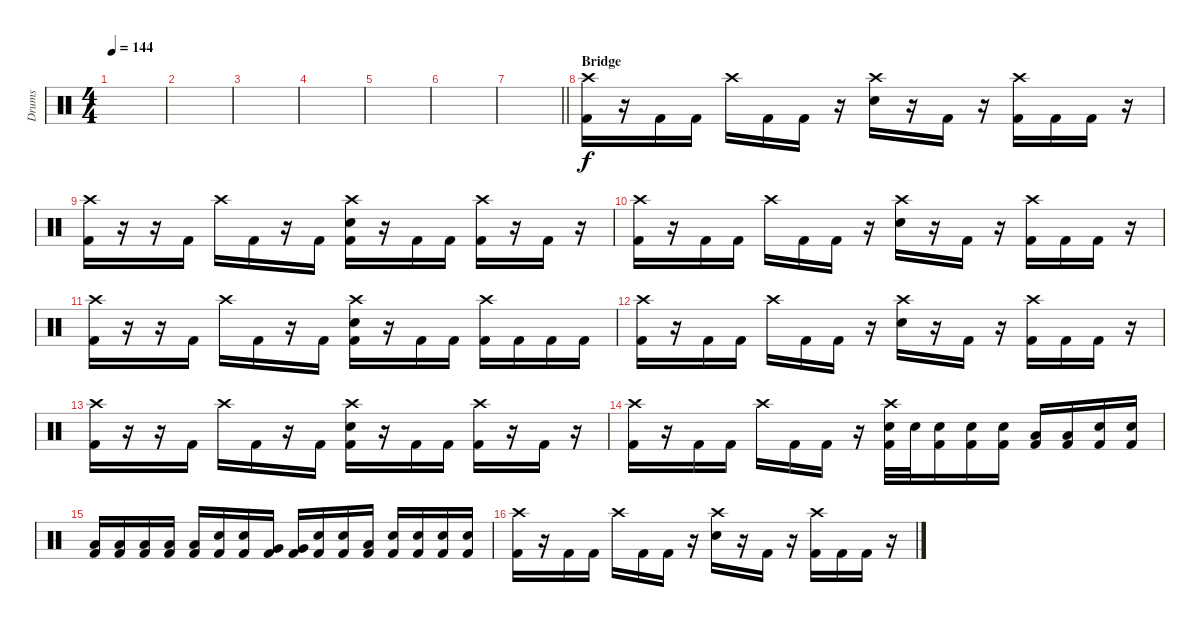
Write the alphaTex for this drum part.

\track ("Drums" "Drums") {instrument percussion}
\staff {score}
\articulation defaults
\ts (4 4)
\tempo 144
\clef neutral
\ks c
|
|
|
|
|
|
\barLineRight lightlight
|
\section ("" "Bridge")
("Crash high (hit)" "Kick (hit) 2").16 r.16 "Kick (hit) 2".16 "Kick (hit) 2".16 "Crash high (hit)".16 "Kick (hit) 2".16 "Kick (hit) 2".16 r.16 ("Crash high (hit)" "Snare (hit) 2").16 r.16 "Kick (hit) 2".16 r.16 ("Crash high (hit)" "Kick (hit) 2").16 "Kick (hit) 2".16 "Kick (hit) 2".16 r.16 |
("Crash high (hit)" "Kick (hit) 2").16 r.16 r.16 "Kick (hit) 2".16 "Crash high (hit)".16 "Kick (hit) 2".16 r.16 "Kick (hit) 2".16 ("Crash high (hit)" "Snare (hit) 2" "Kick (hit) 2").16 r.16 "Kick (hit) 2".16 "Kick (hit) 2".16 ("Crash high (hit)" "Kick (hit) 2").16 r.16 "Kick (hit) 2".16 r.16 |
("Crash high (hit)" "Kick (hit) 2").16 r.16 "Kick (hit) 2".16 "Kick (hit) 2".16 "Crash high (hit)".16 "Kick (hit) 2".16 "Kick (hit) 2".16 r.16 ("Crash high (hit)" "Snare (hit) 2").16 r.16 "Kick (hit) 2".16 r.16 ("Crash high (hit)" "Kick (hit) 2").16 "Kick (hit) 2".16 "Kick (hit) 2".16 r.16 |
("Crash high (hit)" "Kick (hit) 2").16 r.16 r.16 "Kick (hit) 2".16 "Crash high (hit)".16 "Kick (hit) 2".16 r.16 "Kick (hit) 2".16 ("Crash high (hit)" "Snare (hit) 2" "Kick (hit) 2").16 r.16 "Kick (hit) 2".16 "Kick (hit) 2".16 ("Crash high (hit)" "Kick (hit) 2").16 "Kick (hit) 2".16 "Kick (hit) 2".16 "Kick (hit) 2".16 |
("Crash high (hit)" "Kick (hit) 2").16 r.16 "Kick (hit) 2".16 "Kick (hit) 2".16 "Crash high (hit)".16 "Kick (hit) 2".16 "Kick (hit) 2".16 r.16 ("Crash high (hit)" "Snare (hit) 2").16 r.16 "Kick (hit) 2".16 r.16 ("Crash high (hit)" "Kick (hit) 2").16 "Kick (hit) 2".16 "Kick (hit) 2".16 r.16 |
("Crash high (hit)" "Kick (hit) 2").16 r.16 r.16 "Kick (hit) 2".16 "Crash high (hit)".16 "Kick (hit) 2".16 r.16 "Kick (hit) 2".16 ("Crash high (hit)" "Snare (hit) 2" "Kick (hit) 2").16 r.16 "Kick (hit) 2".16 "Kick (hit) 2".16 ("Crash high (hit)" "Kick (hit) 2").16 r.16 "Kick (hit) 2".16 r.16 |
("Crash high (hit)" "Kick (hit) 2").16 r.16 "Kick (hit) 2".16 "Kick (hit) 2".16 "Crash high (hit)".16 "Kick (hit) 2".16 "Kick (hit) 2".16 r.16 ("Crash high (hit)" "Snare (hit) 2" "Kick (hit) 2").32 "Snare (hit) 2".32 ("Snare (hit) 2" "Kick (hit) 2").16 ("Snare (hit) 2" "Kick (hit) 2").16 ("Snare (hit) 2" "Kick (hit) 2").16 ("Low Tom (hit)" "Kick (hit) 2").16 ("Low Tom (hit)" "Kick (hit) 2").16 ("Snare (hit) 2" "Kick (hit) 2").16 ("Snare (hit) 2" "Kick (hit) 2").16 |
("Low Tom (hit)" "Kick (hit) 2").16 ("Low Tom (hit)" "Kick (hit) 2").16 ("Low Tom (hit)" "Kick (hit) 2").16 ("Low Tom (hit)" "Kick (hit) 2").16 ("Low Tom (hit)" "Kick (hit) 2").16 ("Snare (hit) 2" "Kick (hit) 2").16 ("Snare (hit) 2" "Kick (hit) 2").16 ("Very Low Tom (hit)" "Kick (hit) 2").16 ("Very Low Tom (hit)" "Kick (hit) 2").16 ("Snare (hit) 2" "Kick (hit) 2").16 ("Snare (hit) 2" "Kick (hit) 2").16 ("Low Floor Tom (hit)" "Kick (hit) 2").16 ("Snare (hit) 2" "Kick (hit) 2").16 ("Snare (hit) 2" "Kick (hit) 2").16 ("Snare (hit) 2" "Kick (hit) 2").16 ("Snare (hit) 2" "Kick (hit) 2").16 |
("Crash high (hit)" "Kick (hit) 2").16 r.16 "Kick (hit) 2".16 "Kick (hit) 2".16 "Crash high (hit)".16 "Kick (hit) 2".16 "Kick (hit) 2".16 r.16 ("Crash high (hit)" "Snare (hit) 2").16 r.16 "Kick (hit) 2".16 r.16 ("Crash high (hit)" "Kick (hit) 2").16 "Kick (hit) 2".16 "Kick (hit) 2".16 r.16
